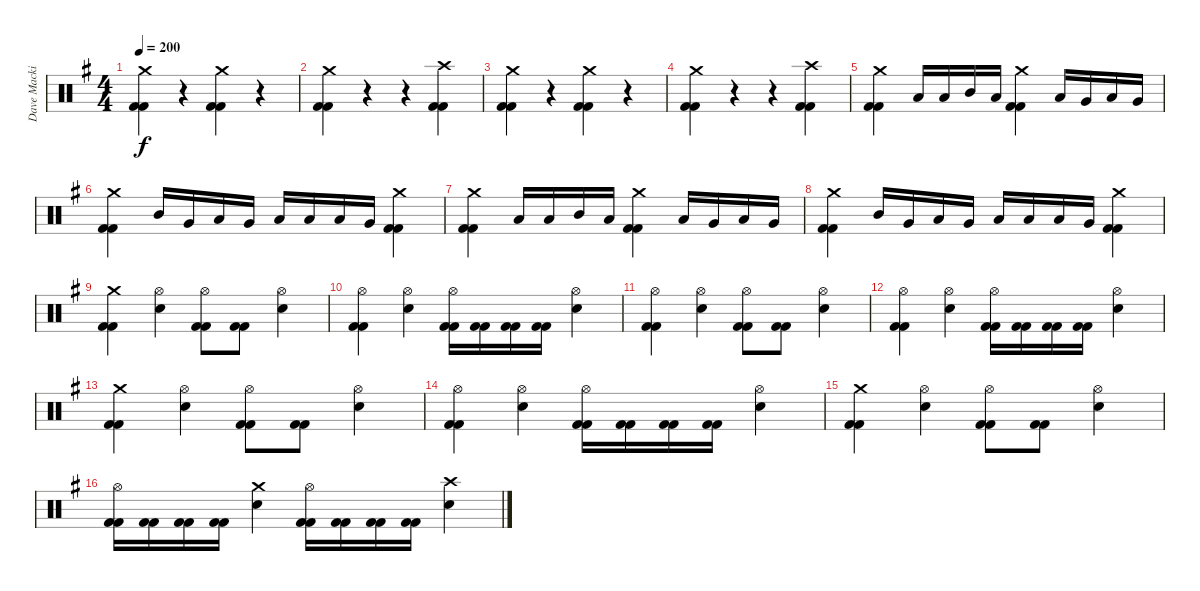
\track ("Dave Mackintosh" "Dave Macki") {instrument percussion}
\staff {score}
\articulation defaults
\ts (4 4)
\tempo 200
\clef neutral
\ks g
("Crash medium (hit)" "Kick (hit) 2" "Kick (hit) 2").4{dy f} r.4{volume 0} ("Crash medium (hit)" "Kick (hit) 2" "Kick (hit) 2").4{volume 16} r.4{volume 0} |
("Crash medium (hit)" "Kick (hit) 2" "Kick (hit) 2").4{volume 16} r.4{volume 0} r.4 ("Crash high (hit)" "Kick (hit) 2" "Kick (hit) 2").4{volume 16} |
("Crash medium (hit)" "Kick (hit) 2" "Kick (hit) 2").4 r.4{volume 0} ("Crash medium (hit)" "Kick (hit) 2" "Kick (hit) 2").4{volume 16} r.4{volume 0} |
("Crash medium (hit)" "Kick (hit) 2" "Kick (hit) 2").4{volume 16} r.4{volume 0} r.4 ("Crash high (hit)" "Kick (hit) 2" "Kick (hit) 2").4{volume 16} |
("Crash medium (hit)" "Kick (hit) 2" "Kick (hit) 2").4{volume 16} "Low Tom (hit)".16 "Low Tom (hit)".16 "Mid Tom (hit)".16 "Low Tom (hit)".16 ("Crash medium (hit)" "Kick (hit) 2" "Kick (hit) 2").4 "Low Tom (hit)".16 "Very Low Tom (hit)".16 "Low Tom (hit)".16 "Very Low Tom (hit)".16 |
("Crash medium (hit)" "Kick (hit) 2" "Kick (hit) 2").4 "Mid Tom (hit)".16 "Very Low Tom (hit)".16 "Low Tom (hit)".16 "Very Low Tom (hit)".16 "Low Floor Tom (hit)".16 "Low Tom (hit)".16 "Low Tom (hit)".16 "Very Low Tom (hit)".16 ("Crash medium (hit)" "Kick (hit) 2" "Kick (hit) 2").4 |
("Crash medium (hit)" "Kick (hit) 2" "Kick (hit) 2").4 "Low Tom (hit)".16 "Low Tom (hit)".16 "Mid Tom (hit)".16 "Low Tom (hit)".16 ("Crash medium (hit)" "Kick (hit) 2" "Kick (hit) 2").4 "Low Tom (hit)".16 "Very Low Tom (hit)".16 "Low Tom (hit)".16 "Very Low Tom (hit)".16 |
("Crash medium (hit)" "Kick (hit) 2" "Kick (hit) 2").4 "Mid Tom (hit)".16 "Very Low Tom (hit)".16 "Low Tom (hit)".16 "Very Low Tom (hit)".16 "Low Floor Tom (hit)".16 "Low Tom (hit)".16 "Low Tom (hit)".16 "Very Low Tom (hit)".16 ("Crash medium (hit)" "Kick (hit) 2" "Kick (hit) 2").4 |
("Crash medium (hit)" "Kick (hit) 2" "Kick (hit) 2").4 ("Hi-Hat (open)" "Electric Snare (hit)").4 ("Hi-Hat (open)" "Kick (hit) 2" "Kick (hit) 2").8 ("Kick (hit) 2" "Kick (hit) 2").8 ("Hi-Hat (open)" "Electric Snare (hit)").4 |
("Hi-Hat (open)" "Kick (hit) 2" "Kick (hit) 2").4 ("Hi-Hat (open)" "Electric Snare (hit)").4 ("Hi-Hat (open)" "Kick (hit) 2" "Kick (hit) 2").16 ("Kick (hit) 2" "Kick (hit) 2").16 ("Kick (hit) 2" "Kick (hit) 2").16 ("Kick (hit) 2" "Kick (hit) 2").16 ("Hi-Hat (open)" "Electric Snare (hit)").4 |
("Hi-Hat (open)" "Kick (hit) 2" "Kick (hit) 2").4 ("Hi-Hat (open)" "Electric Snare (hit)").4 ("Hi-Hat (open)" "Kick (hit) 2" "Kick (hit) 2").8 ("Kick (hit) 2" "Kick (hit) 2").8 ("Hi-Hat (open)" "Electric Snare (hit)").4 |
("Hi-Hat (open)" "Kick (hit) 2" "Kick (hit) 2").4 ("Hi-Hat (open)" "Electric Snare (hit)").4 ("Hi-Hat (open)" "Kick (hit) 2" "Kick (hit) 2").16 ("Kick (hit) 2" "Kick (hit) 2").16 ("Kick (hit) 2" "Kick (hit) 2").16 ("Kick (hit) 2" "Kick (hit) 2").16 ("Hi-Hat (open)" "Electric Snare (hit)").4 |
("Crash medium (hit)" "Kick (hit) 2" "Kick (hit) 2").4 ("Hi-Hat (open)" "Electric Snare (hit)").4 ("Hi-Hat (open)" "Kick (hit) 2" "Kick (hit) 2").8 ("Kick (hit) 2" "Kick (hit) 2").8 ("Hi-Hat (open)" "Electric Snare (hit)").4 |
("Hi-Hat (open)" "Kick (hit) 2" "Kick (hit) 2").4 ("Hi-Hat (open)" "Electric Snare (hit)").4 ("Hi-Hat (open)" "Kick (hit) 2" "Kick (hit) 2").16 ("Kick (hit) 2" "Kick (hit) 2").16 ("Kick (hit) 2" "Kick (hit) 2").16 ("Kick (hit) 2" "Kick (hit) 2").16 ("Hi-Hat (open)" "Electric Snare (hit)").4 |
("Crash medium (hit)" "Kick (hit) 2" "Kick (hit) 2").4 ("Hi-Hat (open)" "Electric Snare (hit)").4 ("Hi-Hat (open)" "Kick (hit) 2" "Kick (hit) 2").8 ("Kick (hit) 2" "Kick (hit) 2").8 ("Hi-Hat (open)" "Electric Snare (hit)").4 |
("Hi-Hat (open)" "Kick (hit) 2" "Kick (hit) 2").16 ("Kick (hit) 2" "Kick (hit) 2").16 ("Kick (hit) 2" "Kick (hit) 2").16 ("Kick (hit) 2" "Kick (hit) 2").16 ("Crash medium (hit)" "Electric Snare (hit)").4 ("Hi-Hat (open)" "Kick (hit) 2" "Kick (hit) 2").16 ("Kick (hit) 2" "Kick (hit) 2").16 ("Kick (hit) 2" "Kick (hit) 2").16 ("Kick (hit) 2" "Kick (hit) 2").16 ("Crash high (hit)" "Electric Snare (hit)").4
